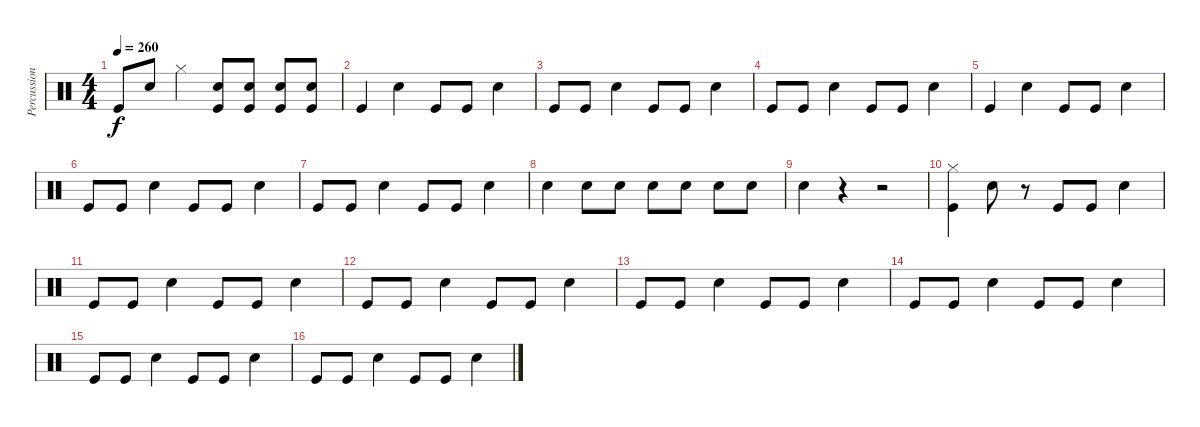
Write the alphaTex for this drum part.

\track ("Percussion" "Percussion") {instrument percussion}
\staff {score}
\articulation defaults
\ts (4 4)
\tempo 260
\clef neutral
\ks c "Kick (hit)".8{dy f} "Snare (hit) 2".8 "Hi-Hat (closed)".4
("Snare (hit) 2" "Kick (hit)").8 ("Snare (hit) 2" "Kick (hit)").8 ("Snare (hit) 2" "Kick (hit)").8 ("Snare (hit) 2" "Kick (hit)").8 |
"Kick (hit)".4 "Snare (hit) 2".4 "Kick (hit)".8 "Kick (hit)".8 "Snare (hit) 2".4 |
"Kick (hit)".8 "Kick (hit)".8 "Snare (hit) 2".4 "Kick (hit)".8 "Kick (hit)".8 "Snare (hit) 2".4 |
"Kick (hit)".8 "Kick (hit)".8 "Snare (hit) 2".4 "Kick (hit)".8 "Kick (hit)".8 "Snare (hit) 2".4 |
"Kick (hit)".4 "Snare (hit) 2".4 "Kick (hit)".8 "Kick (hit)".8 "Snare (hit) 2".4 |
"Kick (hit)".8 "Kick (hit)".8 "Snare (hit) 2".4 "Kick (hit)".8 "Kick (hit)".8 "Snare (hit) 2".4 |
"Kick (hit)".8 "Kick (hit)".8 "Snare (hit) 2".4 "Kick (hit)".8 "Kick (hit)".8 "Snare (hit) 2".4 |
"Snare (hit) 2".4 "Snare (hit) 2".8 "Snare (hit) 2".8 "Snare (hit) 2".8 "Snare (hit) 2".8 "Snare (hit) 2".8 "Snare (hit) 2".8 |
"Snare (hit) 2".4 r.4 r.2 |
("Hi-Hat (closed)" "Kick (hit)").4 "Electric Snare (hit)".8 r.8 "Kick (hit)".8 "Kick (hit)".8 "Snare (hit) 2".4 |
"Kick (hit)".8 "Kick (hit)".8 "Electric Snare (hit)".4 "Kick (hit)".8 "Kick (hit)".8 "Electric Snare (hit)".4 |
"Kick (hit)".8 "Kick (hit)".8 "Electric Snare (hit)".4 "Kick (hit)".8 "Kick (hit)".8 "Electric Snare (hit)".4 |
"Kick (hit)".8 "Kick (hit)".8 "Electric Snare (hit)".4 "Kick (hit)".8 "Kick (hit)".8 "Electric Snare (hit)".4 |
"Kick (hit)".8 "Kick (hit)".8 "Electric Snare (hit)".4 "Kick (hit)".8 "Kick (hit)".8 "Electric Snare (hit)".4 |
"Kick (hit)".8 "Kick (hit)".8 "Electric Snare (hit)".4 "Kick (hit)".8 "Kick (hit)".8 "Electric Snare (hit)".4 |
"Kick (hit)".8 "Kick (hit)".8 "Electric Snare (hit)".4 "Kick (hit)".8 "Kick (hit)".8 "Electric Snare (hit)".4
